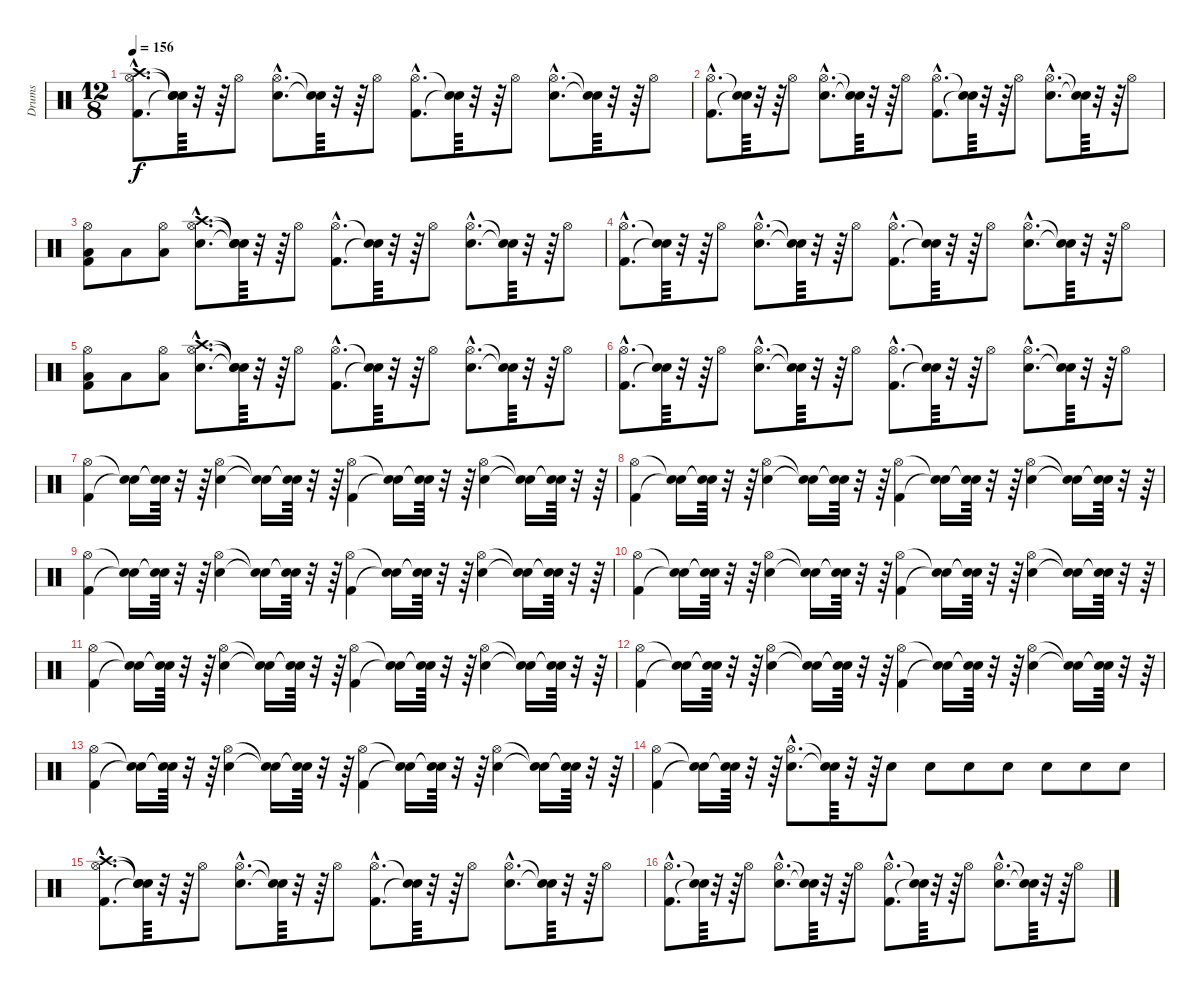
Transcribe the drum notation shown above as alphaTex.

\track ("Drums" "Drums") {instrument percussion}
\staff {score}
\articulation defaults
\ts (12 8)
\tempo 156
\clef neutral
\ks c
("Kick (hit) 2"{hac} "Hi-Hat (open)"{hac} "Crash high (hit)"{hac}).8{d dy f} ("Snare (hit)"{t} "Snare (hit)"{t} "Snare (hit)"{t}).64 r.32 r.64 "Hi-Hat (open)".8 ("Snare (hit) 2"{hac} "Hi-Hat (open)"{hac}).8{d} ("Snare (hit)"{t} "Snare (hit)"{t}).64 r.32 r.64 "Hi-Hat (open)".8 ("Kick (hit) 2"{hac} "Hi-Hat (open)"{hac}).8{d} ("Snare (hit)"{t} "Snare (hit)"{t}).64 r.32 r.64 "Hi-Hat (open)".8 ("Snare (hit) 2"{hac} "Hi-Hat (open)"{hac}).8{d} ("Snare (hit)"{t} "Snare (hit)"{t}).64 r.32 r.64 "Hi-Hat (open)".8 |
("Kick (hit) 2"{hac} "Hi-Hat (open)"{hac}).8{d} ("Snare (hit)"{t} "Snare (hit)"{t}).64 r.32 r.64 "Hi-Hat (open)".8 ("Snare (hit) 2"{hac} "Hi-Hat (open)"{hac}).8{d} ("Snare (hit)"{t} "Snare (hit)"{t}).64 r.32 r.64 "Hi-Hat (open)".8 ("Kick (hit) 2"{hac} "Hi-Hat (open)"{hac}).8{d} ("Snare (hit)"{t} "Snare (hit)"{t}).64 r.32 r.64 "Hi-Hat (open)".8 ("Snare (hit) 2"{hac} "Hi-Hat (open)"{hac}).8{d} ("Snare (hit)"{t} "Snare (hit)"{t}).64 r.32 r.64 "Hi-Hat (open)".8 |
("Kick (hit) 2" "Low Floor Tom (hit)" "Hi-Hat (open)").8 "Low Floor Tom (hit)".8 ("Low Floor Tom (hit)" "Hi-Hat (open)").8 ("Snare (hit) 2"{hac} "Hi-Hat (open)"{hac} "Crash high (hit)"{hac}).8{d} ("Snare (hit)"{t} "Snare (hit)"{t} "Snare (hit)"{t}).64 r.32 r.64 "Hi-Hat (open)".8 ("Kick (hit) 2"{hac} "Hi-Hat (open)"{hac}).8{d} ("Snare (hit)"{t} "Snare (hit)"{t}).64 r.32 r.64 "Hi-Hat (open)".8 ("Snare (hit) 2"{hac} "Hi-Hat (open)"{hac}).8{d} ("Snare (hit)"{t} "Snare (hit)"{t}).64 r.32 r.64 "Hi-Hat (open)".8 |
("Kick (hit) 2"{hac} "Hi-Hat (open)"{hac}).8{d} ("Snare (hit)"{t} "Snare (hit)"{t}).64 r.32 r.64 "Hi-Hat (open)".8 ("Snare (hit) 2"{hac} "Hi-Hat (open)"{hac}).8{d} ("Snare (hit)"{t} "Snare (hit)"{t}).64 r.32 r.64 "Hi-Hat (open)".8 ("Kick (hit) 2"{hac} "Hi-Hat (open)"{hac}).8{d} ("Snare (hit)"{t} "Snare (hit)"{t}).64 r.32 r.64 "Hi-Hat (open)".8 ("Snare (hit) 2"{hac} "Hi-Hat (open)"{hac}).8{d} ("Snare (hit)"{t} "Snare (hit)"{t}).64 r.32 r.64 "Hi-Hat (open)".8 |
("Kick (hit) 2" "Low Floor Tom (hit)" "Hi-Hat (open)").8 "Low Floor Tom (hit)".8 ("Low Floor Tom (hit)" "Hi-Hat (open)").8 ("Snare (hit) 2"{hac} "Hi-Hat (open)"{hac} "Crash high (hit)"{hac}).8{d} ("Snare (hit)"{t} "Snare (hit)"{t} "Snare (hit)"{t}).64 r.32 r.64 "Hi-Hat (open)".8 ("Kick (hit) 2"{hac} "Hi-Hat (open)"{hac}).8{d} ("Snare (hit)"{t} "Snare (hit)"{t}).64 r.32 r.64 "Hi-Hat (open)".8 ("Snare (hit) 2"{hac} "Hi-Hat (open)"{hac}).8{d} ("Snare (hit)"{t} "Snare (hit)"{t}).64 r.32 r.64 "Hi-Hat (open)".8 |
("Kick (hit) 2"{hac} "Hi-Hat (open)"{hac}).8{d} ("Snare (hit)"{t} "Snare (hit)"{t}).64 r.32 r.64 "Hi-Hat (open)".8 ("Snare (hit) 2"{hac} "Hi-Hat (open)"{hac}).8{d} ("Snare (hit)"{t} "Snare (hit)"{t}).64 r.32 r.64 "Hi-Hat (open)".8 ("Kick (hit) 2"{hac} "Hi-Hat (open)"{hac}).8{d} ("Snare (hit)"{t} "Snare (hit)"{t}).64 r.32 r.64 "Hi-Hat (open)".8 ("Snare (hit) 2"{hac} "Hi-Hat (open)"{hac}).8{d} ("Snare (hit)"{t} "Snare (hit)"{t}).64 r.32 r.64 "Hi-Hat (open)".8 |
("Kick (hit) 2" "Hi-Hat (open)").4 ("Snare (hit)"{t} "Snare (hit)"{t}).16 ("Snare (hit)"{t} "Snare (hit)"{t}).64 r.32 r.64 ("Snare (hit) 2" "Hi-Hat (open)").4 ("Snare (hit)"{t} "Snare (hit)"{t}).16 ("Snare (hit)"{t} "Snare (hit)"{t}).64 r.32 r.64 ("Kick (hit) 2" "Hi-Hat (open)").4 ("Snare (hit)"{t} "Snare (hit)"{t}).16 ("Snare (hit)"{t} "Snare (hit)"{t}).64 r.32 r.64 ("Snare (hit) 2" "Hi-Hat (open)").4 ("Snare (hit)"{t} "Snare (hit)"{t}).16 ("Snare (hit)"{t} "Snare (hit)"{t}).64 r.32 r.64 |
("Kick (hit) 2" "Hi-Hat (open)").4 ("Snare (hit)"{t} "Snare (hit)"{t}).16 ("Snare (hit)"{t} "Snare (hit)"{t}).64 r.32 r.64 ("Snare (hit) 2" "Hi-Hat (open)").4 ("Snare (hit)"{t} "Snare (hit)"{t}).16 ("Snare (hit)"{t} "Snare (hit)"{t}).64 r.32 r.64 ("Kick (hit) 2" "Hi-Hat (open)").4 ("Snare (hit)"{t} "Snare (hit)"{t}).16 ("Snare (hit)"{t} "Snare (hit)"{t}).64 r.32 r.64 ("Snare (hit) 2" "Hi-Hat (open)").4 ("Snare (hit)"{t} "Snare (hit)"{t}).16 ("Snare (hit)"{t} "Snare (hit)"{t}).64 r.32 r.64 |
("Kick (hit) 2" "Hi-Hat (open)").4 ("Snare (hit)"{t} "Snare (hit)"{t}).16 ("Snare (hit)"{t} "Snare (hit)"{t}).64 r.32 r.64 ("Snare (hit) 2" "Hi-Hat (open)").4 ("Snare (hit)"{t} "Snare (hit)"{t}).16 ("Snare (hit)"{t} "Snare (hit)"{t}).64 r.32 r.64 ("Kick (hit) 2" "Hi-Hat (open)").4 ("Snare (hit)"{t} "Snare (hit)"{t}).16 ("Snare (hit)"{t} "Snare (hit)"{t}).64 r.32 r.64 ("Snare (hit) 2" "Hi-Hat (open)").4 ("Snare (hit)"{t} "Snare (hit)"{t}).16 ("Snare (hit)"{t} "Snare (hit)"{t}).64 r.32 r.64 |
("Kick (hit) 2" "Hi-Hat (open)").4 ("Snare (hit)"{t} "Snare (hit)"{t}).16 ("Snare (hit)"{t} "Snare (hit)"{t}).64 r.32 r.64 ("Snare (hit) 2" "Hi-Hat (open)").4 ("Snare (hit)"{t} "Snare (hit)"{t}).16 ("Snare (hit)"{t} "Snare (hit)"{t}).64 r.32 r.64 ("Kick (hit) 2" "Hi-Hat (open)").4 ("Snare (hit)"{t} "Snare (hit)"{t}).16 ("Snare (hit)"{t} "Snare (hit)"{t}).64 r.32 r.64 ("Snare (hit) 2" "Hi-Hat (open)").4 ("Snare (hit)"{t} "Snare (hit)"{t}).16 ("Snare (hit)"{t} "Snare (hit)"{t}).64 r.32 r.64 |
("Kick (hit) 2" "Hi-Hat (open)").4 ("Snare (hit)"{t} "Snare (hit)"{t}).16 ("Snare (hit)"{t} "Snare (hit)"{t}).64 r.32 r.64 ("Snare (hit) 2" "Hi-Hat (open)").4 ("Snare (hit)"{t} "Snare (hit)"{t}).16 ("Snare (hit)"{t} "Snare (hit)"{t}).64 r.32 r.64 ("Kick (hit) 2" "Hi-Hat (open)").4 ("Snare (hit)"{t} "Snare (hit)"{t}).16 ("Snare (hit)"{t} "Snare (hit)"{t}).64 r.32 r.64 ("Snare (hit) 2" "Hi-Hat (open)").4 ("Snare (hit)"{t} "Snare (hit)"{t}).16 ("Snare (hit)"{t} "Snare (hit)"{t}).64 r.32 r.64 |
("Kick (hit) 2" "Hi-Hat (open)").4 ("Snare (hit)"{t} "Snare (hit)"{t}).16 ("Snare (hit)"{t} "Snare (hit)"{t}).64 r.32 r.64 ("Snare (hit) 2" "Hi-Hat (open)").4 ("Snare (hit)"{t} "Snare (hit)"{t}).16 ("Snare (hit)"{t} "Snare (hit)"{t}).64 r.32 r.64 ("Kick (hit) 2" "Hi-Hat (open)").4 ("Snare (hit)"{t} "Snare (hit)"{t}).16 ("Snare (hit)"{t} "Snare (hit)"{t}).64 r.32 r.64 ("Snare (hit) 2" "Hi-Hat (open)").4 ("Snare (hit)"{t} "Snare (hit)"{t}).16 ("Snare (hit)"{t} "Snare (hit)"{t}).64 r.32 r.64 |
("Kick (hit) 2" "Hi-Hat (open)").4 ("Snare (hit)"{t} "Snare (hit)"{t}).16 ("Snare (hit)"{t} "Snare (hit)"{t}).64 r.32 r.64 ("Snare (hit) 2" "Hi-Hat (open)").4 ("Snare (hit)"{t} "Snare (hit)"{t}).16 ("Snare (hit)"{t} "Snare (hit)"{t}).64 r.32 r.64 ("Kick (hit) 2" "Hi-Hat (open)").4 ("Snare (hit)"{t} "Snare (hit)"{t}).16 ("Snare (hit)"{t} "Snare (hit)"{t}).64 r.32 r.64 ("Snare (hit) 2" "Hi-Hat (open)").4 ("Snare (hit)"{t} "Snare (hit)"{t}).16 ("Snare (hit)"{t} "Snare (hit)"{t}).64 r.32 r.64 |
("Kick (hit) 2" "Hi-Hat (open)").4 ("Snare (hit)"{t} "Snare (hit)"{t}).16 ("Snare (hit)"{t} "Snare (hit)"{t}).64 r.32 r.64 ("Snare (hit) 2"{hac} "Hi-Hat (open)"{hac}).8{d} ("Snare (hit)"{t} "Snare (hit)"{t}).64 r.32 r.64 "Snare (hit) 2".8 "Snare (hit) 2".8 "Snare (hit) 2".8 "Snare (hit) 2".8 "Snare (hit) 2".8 "Snare (hit) 2".8 "Snare (hit) 2".8 |
("Kick (hit) 2"{hac} "Hi-Hat (open)"{hac} "Crash high (hit)"{hac}).8{d} ("Snare (hit)"{t} "Snare (hit)"{t} "Snare (hit)"{t}).64 r.32 r.64 "Hi-Hat (open)".8 ("Snare (hit) 2"{hac} "Hi-Hat (open)"{hac}).8{d} ("Snare (hit)"{t} "Snare (hit)"{t}).64 r.32 r.64 "Hi-Hat (open)".8 ("Kick (hit) 2"{hac} "Hi-Hat (open)"{hac}).8{d} ("Snare (hit)"{t} "Snare (hit)"{t}).64 r.32 r.64 "Hi-Hat (open)".8 ("Snare (hit) 2"{hac} "Hi-Hat (open)"{hac}).8{d} ("Snare (hit)"{t} "Snare (hit)"{t}).64 r.32 r.64 "Hi-Hat (open)".8 |
("Kick (hit) 2"{hac} "Hi-Hat (open)"{hac}).8{d} ("Snare (hit)"{t} "Snare (hit)"{t}).64 r.32 r.64 "Hi-Hat (open)".8 ("Snare (hit) 2"{hac} "Hi-Hat (open)"{hac}).8{d} ("Snare (hit)"{t} "Snare (hit)"{t}).64 r.32 r.64 "Hi-Hat (open)".8 ("Kick (hit) 2"{hac} "Hi-Hat (open)"{hac}).8{d} ("Snare (hit)"{t} "Snare (hit)"{t}).64 r.32 r.64 "Hi-Hat (open)".8 ("Snare (hit) 2"{hac} "Hi-Hat (open)"{hac}).8{d} ("Snare (hit)"{t} "Snare (hit)"{t}).64 r.32 r.64 "Hi-Hat (open)".8
